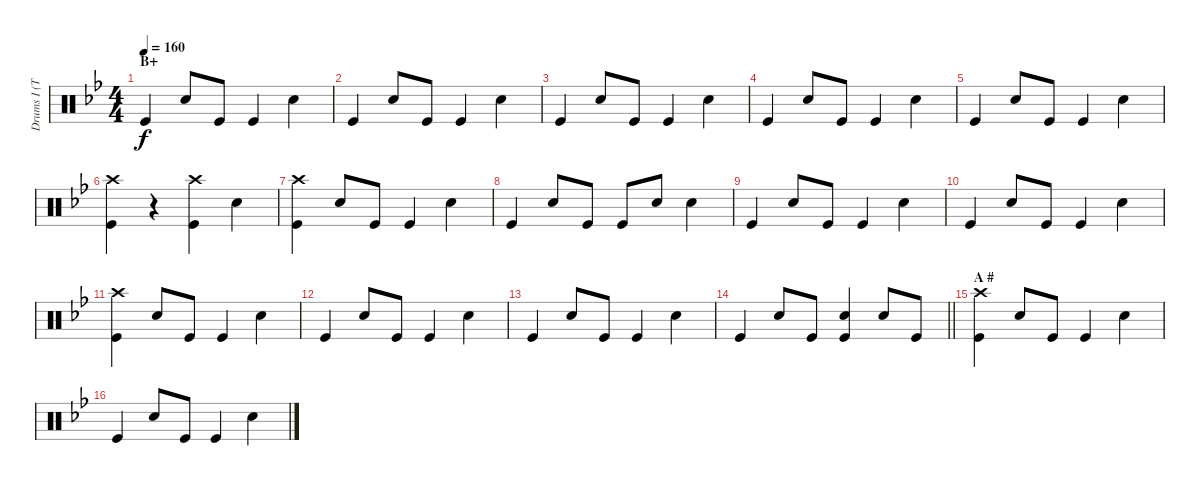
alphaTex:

\track ("Drums I (Tainaka Ritsu)" "Drums I (T") {instrument percussion}
\staff {score}
\articulation defaults
\ts (4 4)
\section ("" "B+")
\tempo 160
\clef neutral
\ks bb "Kick (hit)".4{dy f} "Snare (hit) 2".8 "Kick (hit)".8 "Kick (hit)".4 "Snare (hit) 2".4
|
"Kick (hit)".4 "Snare (hit) 2".8 "Kick (hit)".8 "Kick (hit)".4 "Snare (hit) 2".4 |
"Kick (hit)".4 "Snare (hit) 2".8 "Kick (hit)".8 "Kick (hit)".4 "Snare (hit) 2".4 |
"Kick (hit)".4 "Snare (hit) 2".8 "Kick (hit)".8 "Kick (hit)".4 "Snare (hit) 2".4 |
"Kick (hit)".4 "Snare (hit) 2".8 "Kick (hit)".8 "Kick (hit)".4 "Snare (hit) 2".4 |
("Crash high (hit)" "Kick (hit)").4 r.4 ("Crash high (hit)" "Kick (hit)").4 "Snare (hit) 2".4 |
("Crash high (hit)" "Kick (hit)").4 "Snare (hit) 2".8 "Kick (hit)".8 "Kick (hit)".4 "Snare (hit) 2".4 |
"Kick (hit)".4 "Snare (hit) 2".8 "Kick (hit)".8 "Kick (hit)".8 "Snare (hit) 2".8 "Snare (hit) 2".4 |
"Kick (hit)".4 "Snare (hit) 2".8 "Kick (hit)".8 "Kick (hit)".4 "Snare (hit) 2".4 |
"Kick (hit)".4 "Snare (hit) 2".8 "Kick (hit)".8 "Kick (hit)".4 "Snare (hit) 2".4 |
("Crash high (hit)" "Kick (hit)").4 "Snare (hit) 2".8 "Kick (hit)".8 "Kick (hit)".4 "Snare (hit) 2".4 |
"Kick (hit)".4 "Snare (hit) 2".8 "Kick (hit)".8 "Kick (hit)".4 "Snare (hit) 2".4 |
"Kick (hit)".4 "Snare (hit) 2".8 "Kick (hit)".8 "Kick (hit)".4 "Snare (hit) 2".4 |
\barLineRight lightlight "Kick (hit)".4 "Snare (hit) 2".8 "Kick (hit)".8
("Snare (hit) 2" "Kick (hit)").4 "Snare (hit) 2".8 "Kick (hit)".8 |
\section ("" "A #")
("Crash high (hit)" "Kick (hit)").4 "Snare (hit) 2".8 "Kick (hit)".8 "Kick (hit)".4 "Snare (hit) 2".4 |
"Kick (hit)".4 "Snare (hit) 2".8 "Kick (hit)".8 "Kick (hit)".4 "Snare (hit) 2".4
